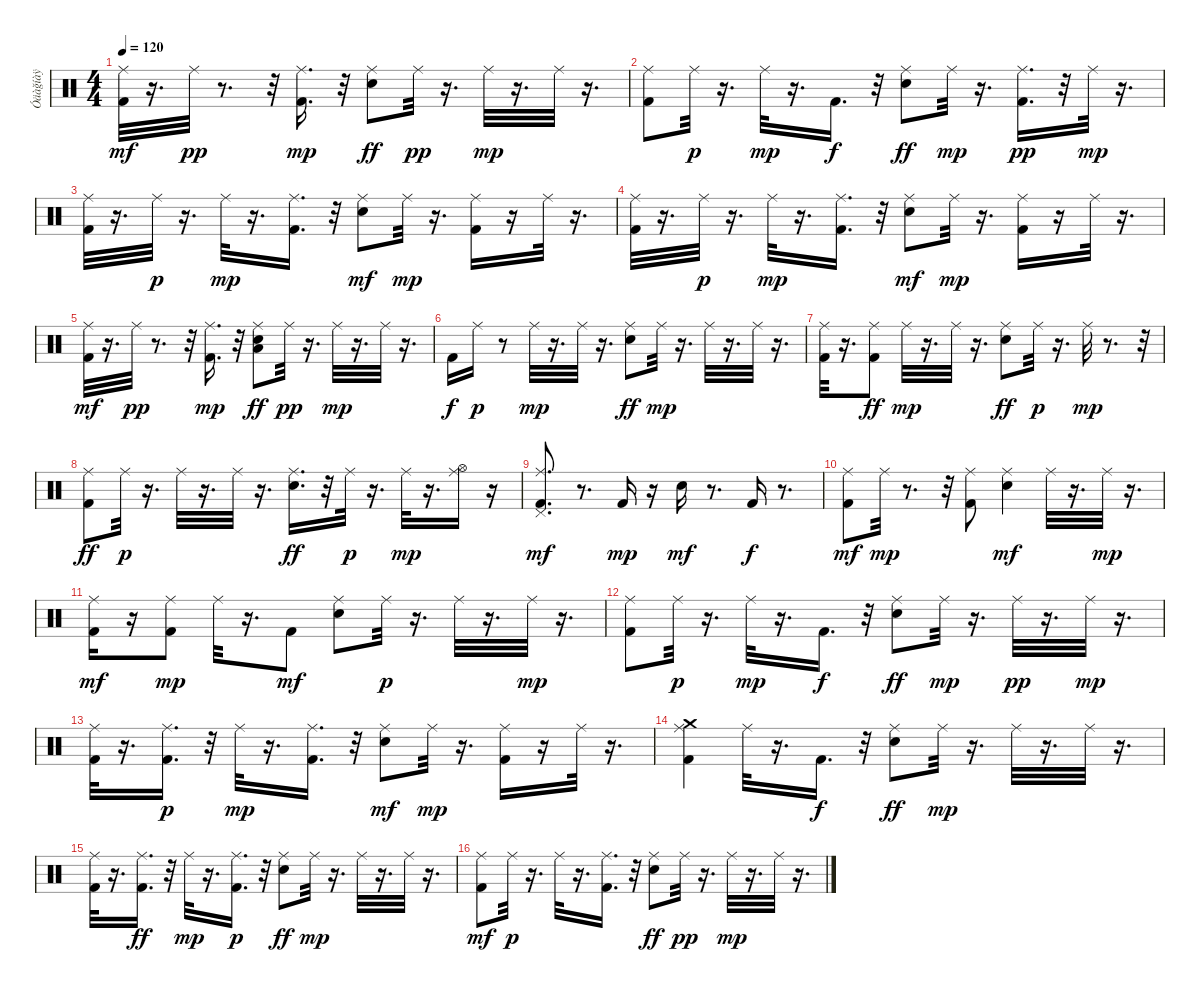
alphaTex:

\track ("Óäàğíàÿ" "Óäàğíàÿ") {instrument percussion}
\staff {score}
\articulation defaults
\ts (4 4)
\tempo 120
\clef neutral
\ks c
("Ride (middle)" "Kick (hit) 2").32{dy mf} r.16{d} "Ride (middle)".32{dy pp} r.8{d} r.32 ("Ride (middle)" "Kick (hit) 2").16{d dy mp} r.32 ("Ride (middle)" "Snare (hit) 2").8{dy ff} "Ride (middle)".32{dy pp} r.16{d} "Ride (middle)".32{dy mp} r.16{d} "Ride (middle)".32 r.16{d} |
("Kick (hit) 2" "Ride (middle)").8 "Ride (middle)".32{dy p} r.16{d} "Ride (middle)".32{dy mp} r.16{d} "Kick (hit) 2".16{d dy f} r.32 ("Ride (middle)" "Snare (hit) 2").8{dy ff} "Ride (middle)".32{dy mp} r.16{d} ("Kick (hit) 2" "Ride (middle)").16{d dy pp} r.32 "Ride (middle)".32{dy mp} r.16{d} |
("Kick (hit) 2" "Ride (middle)").32 r.16{d} "Ride (middle)".32{dy p} r.16{d} "Ride (middle)".32{dy mp} r.16{d} ("Kick (hit) 2" "Ride (middle)").16{d} r.32 ("Snare (hit) 2" "Ride (middle)").8{dy mf} "Ride (middle)".32{dy mp} r.16{d} ("Kick (hit) 2" "Ride (middle)").16 r.16 "Ride (middle)".32 r.16{d} |
("Kick (hit) 2" "Ride (middle)").32 r.16{d} "Ride (middle)".32{dy p} r.16{d} "Ride (middle)".32{dy mp} r.16{d} ("Kick (hit) 2" "Ride (middle)").16{d} r.32 ("Snare (hit) 2" "Ride (middle)").8{dy mf} "Ride (middle)".32{dy mp} r.16{d} ("Kick (hit) 2" "Ride (middle)").16 r.16 "Ride (middle)".32 r.16{d} |
("Ride (middle)" "Kick (hit) 2").32{dy mf} r.16{d} "Ride (middle)".32{dy pp} r.8{d} r.32 ("Ride (middle)" "Kick (hit) 2").16{d dy mp} r.32 ("Low Floor Tom (hit)" "Ride (middle)" "Snare (hit) 2").8{dy ff} "Ride (middle)".32{dy pp} r.16{d} "Ride (middle)".32{dy mp} r.16{d} "Ride (middle)".32 r.16{d} |
"Kick (hit) 2".16{dy f} "Ride (middle)".16{dy p} r.8 "Ride (middle)".32{dy mp} r.16{d} "Ride (middle)".32 r.16{d} ("Ride (middle)" "Snare (hit) 2").8{dy ff} "Ride (middle)".32{dy mp} r.16{d} "Ride (middle)".32 r.16{d} "Ride (middle)".32 r.16{d} |
("Kick (hit) 2" "Ride (middle)").32 r.16{d} ("Ride (middle)" "Kick (hit) 2").8{dy ff} "Ride (middle)".32{dy mp} r.16{d} "Ride (middle)".32 r.16{d} ("Ride (middle)" "Snare (hit) 2").8{dy ff} "Ride (middle)".32{dy p} r.16{d} "Ride (middle)".32{dy mp} r.8{d} r.32 |
("Ride (middle)" "Kick (hit) 2").8{dy ff} "Ride (middle)".32{dy p} r.16{d} "Ride (middle)".32 r.16{d} "Ride (middle)".32 r.16{d} ("Ride (middle)" "Snare (hit) 2").16{d dy ff} r.32 "Ride (middle)".32{dy p} r.16{d} "Ride (middle)".32{dy mp} r.16{d} ("Ride (middle)" "Hi-Hat (open)").16 r.16 |
("Ride (middle)" "Pedal Hi-Hat (hit)" "Kick (hit) 2").8{d dy mf} r.8{d} "Kick (hit) 2".16{dy mp} r.16 "Snare (hit) 2".16{dy mf} r.8{d} "Kick (hit) 2".16{dy f} r.8{d} |
("Ride (middle)" "Kick (hit) 2").8{dy mf} "Ride (middle)".32{dy mp} r.8{d} r.32 ("Kick (hit) 2" "Ride (middle)").8 ("Snare (hit) 2" "Ride (middle)").4{dy mf} "Ride (middle)".32 r.16{d} "Ride (middle)".32{dy mp} r.16{d} |
("Ride (middle)" "Kick (hit) 2").16{dy mf} r.16 ("Kick (hit) 2" "Ride (middle)").8{dy mp} "Ride (middle)".32 r.16{d} "Kick (hit) 2".8{dy mf} ("Ride (middle)" "Snare (hit) 2").8 "Ride (middle)".32{dy p} r.16{d} "Ride (middle)".32 r.16{d} "Ride (middle)".32{dy mp} r.16{d} |
("Kick (hit) 2" "Ride (middle)").8 "Ride (middle)".32{dy p} r.16{d} "Ride (middle)".32{dy mp} r.16{d} "Kick (hit) 2".16{d dy f} r.32 ("Ride (middle)" "Snare (hit) 2").8{dy ff} "Ride (middle)".32{dy mp} r.16{d} "Ride (middle)".32{dy pp} r.16{d} "Ride (middle)".32{dy mp} r.16{d} |
("Kick (hit) 2" "Ride (middle)").32 r.16{d} ("Kick (hit) 2" "Ride (middle)").16{d dy p} r.32 "Ride (middle)".32{dy mp} r.16{d} ("Kick (hit) 2" "Ride (middle)").16{d} r.32 ("Snare (hit) 2" "Ride (middle)").8{dy mf} "Ride (middle)".32{dy mp} r.16{d} ("Kick (hit) 2" "Ride (middle)").16 r.16 "Ride (middle)".32 r.16{d} |
("Kick (hit) 2" "Crash medium (hit)" "Ride (middle)").4 "Ride (middle)".32 r.16{d} "Kick (hit) 2".16{d dy f} r.32 ("Ride (middle)" "Snare (hit) 2").8{dy ff} "Ride (middle)".32{dy mp} r.16{d} "Ride (middle)".32 r.16{d} "Ride (middle)".32 r.16{d} |
("Kick (hit) 2" "Ride (middle)").32 r.16{d} ("Ride (middle)" "Kick (hit) 2").16{d dy ff} r.32 "Ride (middle)".32{dy mp} r.16{d} ("Ride (middle)" "Kick (hit) 2").16{d dy p} r.32 ("Ride (middle)" "Snare (hit) 2").8{dy ff} "Ride (middle)".32{dy mp} r.16{d} "Ride (middle)".32 r.16{d} "Ride (middle)".32 r.16{d} |
("Ride (middle)" "Kick (hit) 2").8{dy mf} "Ride (middle)".32{dy p} r.16{d} "Ride (middle)".32 r.16{d} ("Ride (middle)" "Kick (hit) 2").16{d} r.32 ("Ride (middle)" "Snare (hit) 2").8{dy ff} "Ride (middle)".32{dy pp} r.16{d} "Ride (middle)".32{dy mp} r.16{d} "Ride (middle)".32 r.16{d}
